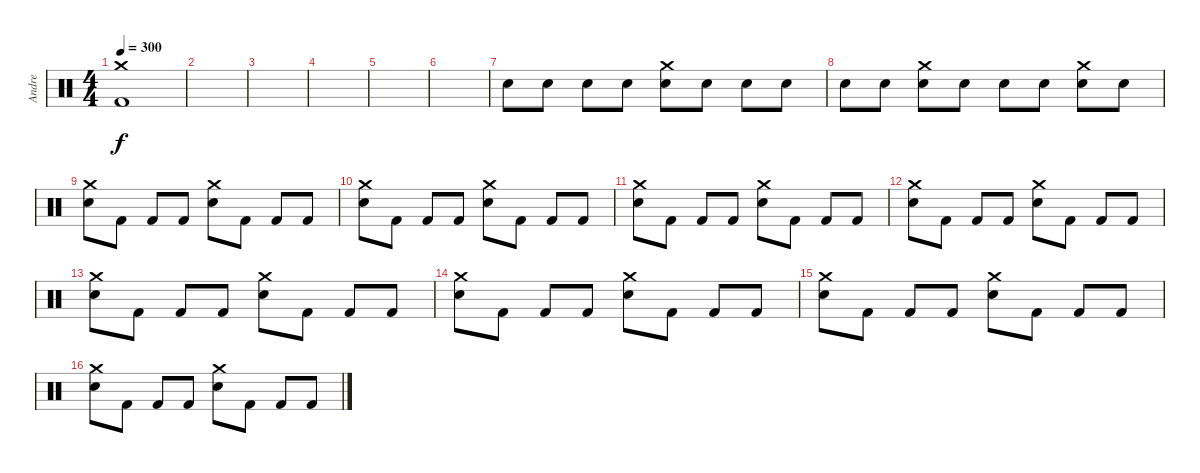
\track ("Andre" "Andre") {instrument percussion}
\staff {score}
\articulation defaults
\ts (4 4)
\tempo 300
\clef neutral
\ks c
("Crash medium (hit)" "Kick (hit) 2").1{dy f} |
|
|
|
|
|
"Electric Snare (hit)".8 "Electric Snare (hit)".8 "Electric Snare (hit)".8 "Electric Snare (hit)".8 ("Crash medium (hit)" "Electric Snare (hit)").8 "Electric Snare (hit)".8 "Electric Snare (hit)".8 "Electric Snare (hit)".8 |
"Electric Snare (hit)".8 "Electric Snare (hit)".8 ("Crash medium (hit)" "Electric Snare (hit)").8 "Electric Snare (hit)".8 "Electric Snare (hit)".8 "Electric Snare (hit)".8 ("Crash medium (hit)" "Electric Snare (hit)").8 "Electric Snare (hit)".8 |
("Crash medium (hit)" "Electric Snare (hit)").8 "Kick (hit) 2".8 "Kick (hit) 2".8 "Kick (hit) 2".8 ("Crash medium (hit)" "Electric Snare (hit)").8 "Kick (hit) 2".8 "Kick (hit) 2".8 "Kick (hit) 2".8 |
("Crash medium (hit)" "Electric Snare (hit)").8 "Kick (hit) 2".8 "Kick (hit) 2".8 "Kick (hit) 2".8 ("Crash medium (hit)" "Electric Snare (hit)").8 "Kick (hit) 2".8 "Kick (hit) 2".8 "Kick (hit) 2".8 |
("Crash medium (hit)" "Electric Snare (hit)").8 "Kick (hit) 2".8 "Kick (hit) 2".8 "Kick (hit) 2".8 ("Crash medium (hit)" "Electric Snare (hit)").8 "Kick (hit) 2".8 "Kick (hit) 2".8 "Kick (hit) 2".8 |
("Crash medium (hit)" "Electric Snare (hit)").8 "Kick (hit) 2".8 "Kick (hit) 2".8 "Kick (hit) 2".8 ("Crash medium (hit)" "Electric Snare (hit)").8 "Kick (hit) 2".8 "Kick (hit) 2".8 "Kick (hit) 2".8 |
("Crash medium (hit)" "Electric Snare (hit)").8 "Kick (hit) 2".8 "Kick (hit) 2".8 "Kick (hit) 2".8 ("Crash medium (hit)" "Electric Snare (hit)").8 "Kick (hit) 2".8 "Kick (hit) 2".8 "Kick (hit) 2".8 |
("Crash medium (hit)" "Electric Snare (hit)").8 "Kick (hit) 2".8 "Kick (hit) 2".8 "Kick (hit) 2".8 ("Crash medium (hit)" "Electric Snare (hit)").8 "Kick (hit) 2".8 "Kick (hit) 2".8 "Kick (hit) 2".8 |
("Crash medium (hit)" "Electric Snare (hit)").8 "Kick (hit) 2".8 "Kick (hit) 2".8 "Kick (hit) 2".8 ("Crash medium (hit)" "Electric Snare (hit)").8 "Kick (hit) 2".8 "Kick (hit) 2".8 "Kick (hit) 2".8 |
("Crash medium (hit)" "Electric Snare (hit)").8 "Kick (hit) 2".8 "Kick (hit) 2".8 "Kick (hit) 2".8 ("Crash medium (hit)" "Electric Snare (hit)").8 "Kick (hit) 2".8 "Kick (hit) 2".8 "Kick (hit) 2".8
